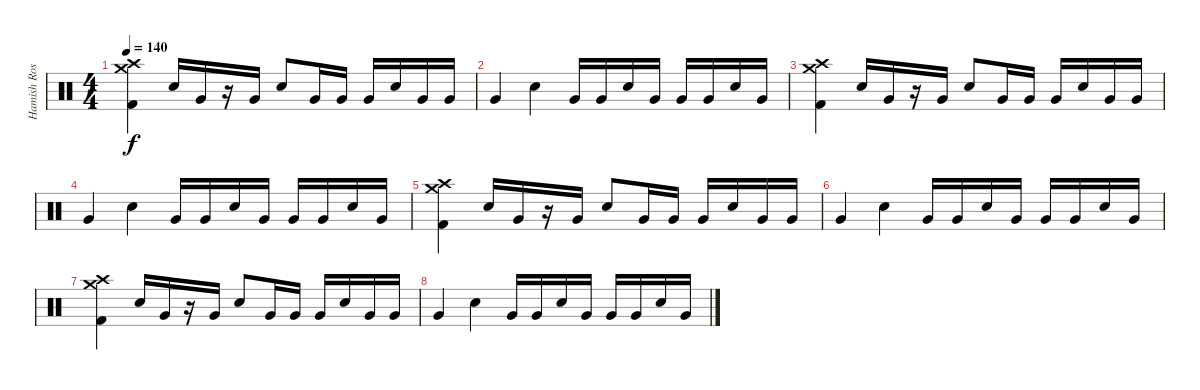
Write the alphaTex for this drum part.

\track ("Hamish Rosser" "Hamish Ros") {instrument percussion}
\staff {score}
\articulation defaults
\ts (4 4)
\tempo 140
\clef neutral
\ks c
("Crash medium (hit)" "Crash high (hit)" "Kick (hit) 2").4{dy f} "Snare (hit) 2".16 "Very Low Tom (hit)".16 r.16 "Very Low Tom (hit)".16 "Snare (hit) 2".8 "Very Low Tom (hit)".16 "Very Low Tom (hit)".16 "Very Low Tom (hit)".16 "Snare (hit) 2".16 "Very Low Tom (hit)".16 "Very Low Tom (hit)".16 |
"Very Low Tom (hit)".4 "Snare (hit) 2".4 "Very Low Tom (hit)".16 "Very Low Tom (hit)".16 "Snare (hit) 2".16 "Very Low Tom (hit)".16 "Very Low Tom (hit)".16 "Very Low Tom (hit)".16 "Snare (hit) 2".16 "Very Low Tom (hit)".16 |
("Crash medium (hit)" "Crash high (hit)" "Kick (hit) 2").4 "Snare (hit) 2".16 "Very Low Tom (hit)".16 r.16 "Very Low Tom (hit)".16 "Snare (hit) 2".8 "Very Low Tom (hit)".16 "Very Low Tom (hit)".16 "Very Low Tom (hit)".16 "Snare (hit) 2".16 "Very Low Tom (hit)".16 "Very Low Tom (hit)".16 |
"Very Low Tom (hit)".4 "Snare (hit) 2".4 "Very Low Tom (hit)".16 "Very Low Tom (hit)".16 "Snare (hit) 2".16 "Very Low Tom (hit)".16 "Very Low Tom (hit)".16 "Very Low Tom (hit)".16 "Snare (hit) 2".16 "Very Low Tom (hit)".16 |
("Crash medium (hit)" "Crash high (hit)" "Kick (hit) 2").4 "Snare (hit) 2".16 "Very Low Tom (hit)".16 r.16 "Very Low Tom (hit)".16 "Snare (hit) 2".8 "Very Low Tom (hit)".16 "Very Low Tom (hit)".16 "Very Low Tom (hit)".16 "Snare (hit) 2".16 "Very Low Tom (hit)".16 "Very Low Tom (hit)".16 |
"Very Low Tom (hit)".4 "Snare (hit) 2".4 "Very Low Tom (hit)".16 "Very Low Tom (hit)".16 "Snare (hit) 2".16 "Very Low Tom (hit)".16 "Very Low Tom (hit)".16 "Very Low Tom (hit)".16 "Snare (hit) 2".16 "Very Low Tom (hit)".16 |
("Crash medium (hit)" "Crash high (hit)" "Kick (hit) 2").4 "Snare (hit) 2".16 "Very Low Tom (hit)".16 r.16 "Very Low Tom (hit)".16 "Snare (hit) 2".8 "Very Low Tom (hit)".16 "Very Low Tom (hit)".16 "Very Low Tom (hit)".16 "Snare (hit) 2".16 "Very Low Tom (hit)".16 "Very Low Tom (hit)".16 |
"Very Low Tom (hit)".4 "Snare (hit) 2".4 "Very Low Tom (hit)".16 "Very Low Tom (hit)".16 "Snare (hit) 2".16 "Very Low Tom (hit)".16 "Very Low Tom (hit)".16 "Very Low Tom (hit)".16 "Snare (hit) 2".16 "Very Low Tom (hit)".16
